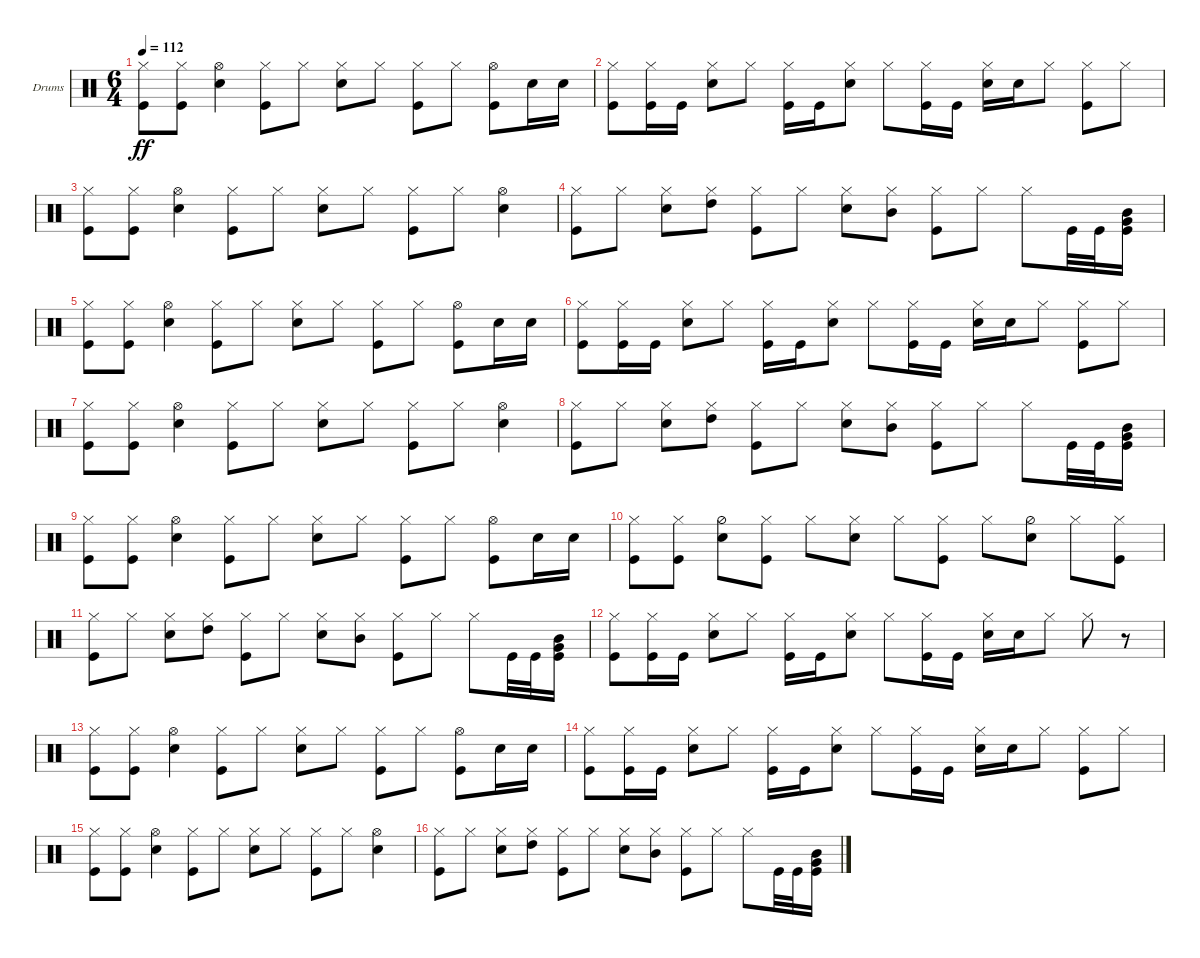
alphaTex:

\defaultSystemsLayout 4
\bracketExtendMode groupsimilarinstruments
\firstSystemTrackNameOrientation horizontal
\otherSystemsTrackNameOrientation horizontal
\track ("Drumkit" "Drums") {instrument percussion}
\staff {score}
\articulation defaults
\ts (6 4)
\tempo 112
\clef neutral
\ks c
("Hi-Hat (closed)" "Kick (hit)").8{dy ff} ("Hi-Hat (closed)" "Kick (hit)").8 ("Hi-Hat (open)" "Snare (hit) 2").4 ("Hi-Hat (closed)" "Kick (hit)").8 "Hi-Hat (closed)".8 ("Hi-Hat (closed)" "Snare (hit) 2").8 "Hi-Hat (closed)".8 ("Hi-Hat (closed)" "Kick (hit)").8 "Hi-Hat (closed)".8 ("Kick (hit)" "Hi-Hat (open)").8 "Snare (hit) 2".16 "Snare (hit) 2".16 |
("Kick (hit)" "Hi-Hat (closed)").8 ("Kick (hit)" "Hi-Hat (closed)").16 "Kick (hit)".16 ("Snare (hit) 2" "Hi-Hat (closed)").8 "Hi-Hat (closed)".8 ("Hi-Hat (closed)" "Kick (hit)").16 "Kick (hit)".16 ("Hi-Hat (closed)" "Snare (hit) 2").8 "Hi-Hat (closed)".8 ("Hi-Hat (closed)" "Kick (hit)").16 "Kick (hit)".16 ("Hi-Hat (closed)" "Snare (hit) 2").16 "Snare (hit) 2".16 "Hi-Hat (closed)".8 ("Hi-Hat (closed)" "Kick (hit)").8 "Hi-Hat (closed)".8 |
("Hi-Hat (closed)" "Kick (hit)").8 ("Hi-Hat (closed)" "Kick (hit)").8 ("Hi-Hat (open)" "Snare (hit) 2").4 ("Hi-Hat (closed)" "Kick (hit)").8 "Hi-Hat (closed)".8 ("Hi-Hat (closed)" "Snare (hit) 2").8 "Hi-Hat (closed)".8 ("Hi-Hat (closed)" "Kick (hit)").8 "Hi-Hat (closed)".8 ("Hi-Hat (open)" "Snare (hit) 2").4 |
("Kick (hit)" "Hi-Hat (closed)").8 "Hi-Hat (closed)".8 ("Hi-Hat (closed)" "Snare (hit) 2").8 ("Hi-Hat (closed)" "High Tom (hit)").8 ("Hi-Hat (closed)" "Kick (hit)").8 "Hi-Hat (closed)".8 ("Hi-Hat (closed)" "Snare (hit) 2").8 ("Hi-Hat (closed)" "Mid Tom (hit)").8 ("Hi-Hat (closed)" "Kick (hit)").8 "Hi-Hat (closed)".8 "Hi-Hat (closed)".8 "Kick (hit)".32 "Kick (hit)".32 ("Mid Tom (hit)" "Very Low Tom (hit)" "Kick (hit)").16 |
("Hi-Hat (closed)" "Kick (hit)").8 ("Hi-Hat (closed)" "Kick (hit)").8 ("Hi-Hat (open)" "Snare (hit) 2").4 ("Hi-Hat (closed)" "Kick (hit)").8 "Hi-Hat (closed)".8 ("Hi-Hat (closed)" "Snare (hit) 2").8 "Hi-Hat (closed)".8 ("Hi-Hat (closed)" "Kick (hit)").8 "Hi-Hat (closed)".8 ("Kick (hit)" "Hi-Hat (open)").8 "Snare (hit) 2".16 "Snare (hit) 2".16 |
("Kick (hit)" "Hi-Hat (closed)").8 ("Kick (hit)" "Hi-Hat (closed)").16 "Kick (hit)".16 ("Snare (hit) 2" "Hi-Hat (closed)").8 "Hi-Hat (closed)".8 ("Hi-Hat (closed)" "Kick (hit)").16 "Kick (hit)".16 ("Hi-Hat (closed)" "Snare (hit) 2").8 "Hi-Hat (closed)".8 ("Hi-Hat (closed)" "Kick (hit)").16 "Kick (hit)".16 ("Hi-Hat (closed)" "Snare (hit) 2").16 "Snare (hit) 2".16 "Hi-Hat (closed)".8 ("Hi-Hat (closed)" "Kick (hit)").8 "Hi-Hat (closed)".8 |
("Hi-Hat (closed)" "Kick (hit)").8 ("Hi-Hat (closed)" "Kick (hit)").8 ("Hi-Hat (open)" "Snare (hit) 2").4 ("Hi-Hat (closed)" "Kick (hit)").8 "Hi-Hat (closed)".8 ("Hi-Hat (closed)" "Snare (hit) 2").8 "Hi-Hat (closed)".8 ("Hi-Hat (closed)" "Kick (hit)").8 "Hi-Hat (closed)".8 ("Hi-Hat (open)" "Snare (hit) 2").4 |
("Kick (hit)" "Hi-Hat (closed)").8 "Hi-Hat (closed)".8 ("Hi-Hat (closed)" "Snare (hit) 2").8 ("Hi-Hat (closed)" "High Tom (hit)").8 ("Hi-Hat (closed)" "Kick (hit)").8 "Hi-Hat (closed)".8 ("Hi-Hat (closed)" "Snare (hit) 2").8 ("Hi-Hat (closed)" "Mid Tom (hit)").8 ("Hi-Hat (closed)" "Kick (hit)").8 "Hi-Hat (closed)".8 "Hi-Hat (closed)".8 "Kick (hit)".32 "Kick (hit)".32 ("Mid Tom (hit)" "Very Low Tom (hit)" "Kick (hit)").16 |
("Hi-Hat (closed)" "Kick (hit)").8 ("Hi-Hat (closed)" "Kick (hit)").8 ("Hi-Hat (open)" "Snare (hit) 2").4 ("Hi-Hat (closed)" "Kick (hit)").8 "Hi-Hat (closed)".8 ("Hi-Hat (closed)" "Snare (hit) 2").8 "Hi-Hat (closed)".8 ("Hi-Hat (closed)" "Kick (hit)").8 "Hi-Hat (closed)".8 ("Kick (hit)" "Hi-Hat (open)").8 "Snare (hit) 2".16 "Snare (hit) 2".16 |
("Hi-Hat (closed)" "Kick (hit)").8 ("Hi-Hat (closed)" "Kick (hit)").8 ("Hi-Hat (half)" "Snare (hit) 2").8 ("Hi-Hat (closed)" "Kick (hit)").8 "Hi-Hat (closed)".8 ("Hi-Hat (closed)" "Snare (hit) 2").8 "Hi-Hat (closed)".8 ("Hi-Hat (closed)" "Kick (hit)").8 "Hi-Hat (closed)".8 ("Hi-Hat (half)" "Snare (hit) 2").8 "Hi-Hat (closed)".8 ("Hi-Hat (closed)" "Kick (hit)").8 |
("Kick (hit)" "Hi-Hat (closed)").8 "Hi-Hat (closed)".8 ("Hi-Hat (closed)" "Snare (hit) 2").8 ("Hi-Hat (closed)" "High Tom (hit)").8 ("Hi-Hat (closed)" "Kick (hit)").8 "Hi-Hat (closed)".8 ("Hi-Hat (closed)" "Snare (hit) 2").8 ("Hi-Hat (closed)" "Mid Tom (hit)").8 ("Hi-Hat (closed)" "Kick (hit)").8 "Hi-Hat (closed)".8 "Hi-Hat (closed)".8 "Kick (hit)".32 "Kick (hit)".32 ("Mid Tom (hit)" "Very Low Tom (hit)" "Kick (hit)").16 |
("Kick (hit)" "Hi-Hat (closed)").8 ("Kick (hit)" "Hi-Hat (closed)").16 "Kick (hit)".16 ("Snare (hit) 2" "Hi-Hat (closed)").8 "Hi-Hat (closed)".8 ("Hi-Hat (closed)" "Kick (hit)").16 "Kick (hit)".16 ("Hi-Hat (closed)" "Snare (hit) 2").8 "Hi-Hat (closed)".8 ("Hi-Hat (closed)" "Kick (hit)").16 "Kick (hit)".16 ("Hi-Hat (closed)" "Snare (hit) 2").16 "Snare (hit) 2".16 "Hi-Hat (closed)".8 "Hi-Hat (closed)".8 r.8 |
("Hi-Hat (closed)" "Kick (hit)").8 ("Hi-Hat (closed)" "Kick (hit)").8 ("Hi-Hat (open)" "Snare (hit) 2").4 ("Hi-Hat (closed)" "Kick (hit)").8 "Hi-Hat (closed)".8 ("Hi-Hat (closed)" "Snare (hit) 2").8 "Hi-Hat (closed)".8 ("Hi-Hat (closed)" "Kick (hit)").8 "Hi-Hat (closed)".8 ("Kick (hit)" "Hi-Hat (open)").8 "Snare (hit) 2".16 "Snare (hit) 2".16 |
("Kick (hit)" "Hi-Hat (closed)").8 ("Kick (hit)" "Hi-Hat (closed)").16 "Kick (hit)".16 ("Snare (hit) 2" "Hi-Hat (closed)").8 "Hi-Hat (closed)".8 ("Hi-Hat (closed)" "Kick (hit)").16 "Kick (hit)".16 ("Hi-Hat (closed)" "Snare (hit) 2").8 "Hi-Hat (closed)".8 ("Hi-Hat (closed)" "Kick (hit)").16 "Kick (hit)".16 ("Hi-Hat (closed)" "Snare (hit) 2").16 "Snare (hit) 2".16 "Hi-Hat (closed)".8 ("Hi-Hat (closed)" "Kick (hit)").8 "Hi-Hat (closed)".8 |
("Hi-Hat (closed)" "Kick (hit)").8 ("Hi-Hat (closed)" "Kick (hit)").8 ("Hi-Hat (open)" "Snare (hit) 2").4 ("Hi-Hat (closed)" "Kick (hit)").8 "Hi-Hat (closed)".8 ("Hi-Hat (closed)" "Snare (hit) 2").8 "Hi-Hat (closed)".8 ("Hi-Hat (closed)" "Kick (hit)").8 "Hi-Hat (closed)".8 ("Hi-Hat (open)" "Snare (hit) 2").4 |
("Kick (hit)" "Hi-Hat (closed)").8 "Hi-Hat (closed)".8 ("Hi-Hat (closed)" "Snare (hit) 2").8 ("Hi-Hat (closed)" "High Tom (hit)").8 ("Hi-Hat (closed)" "Kick (hit)").8 "Hi-Hat (closed)".8 ("Hi-Hat (closed)" "Snare (hit) 2").8 ("Hi-Hat (closed)" "Mid Tom (hit)").8 ("Hi-Hat (closed)" "Kick (hit)").8 "Hi-Hat (closed)".8 "Hi-Hat (closed)".8 "Kick (hit)".32 "Kick (hit)".32 ("Mid Tom (hit)" "Very Low Tom (hit)" "Kick (hit)").16
